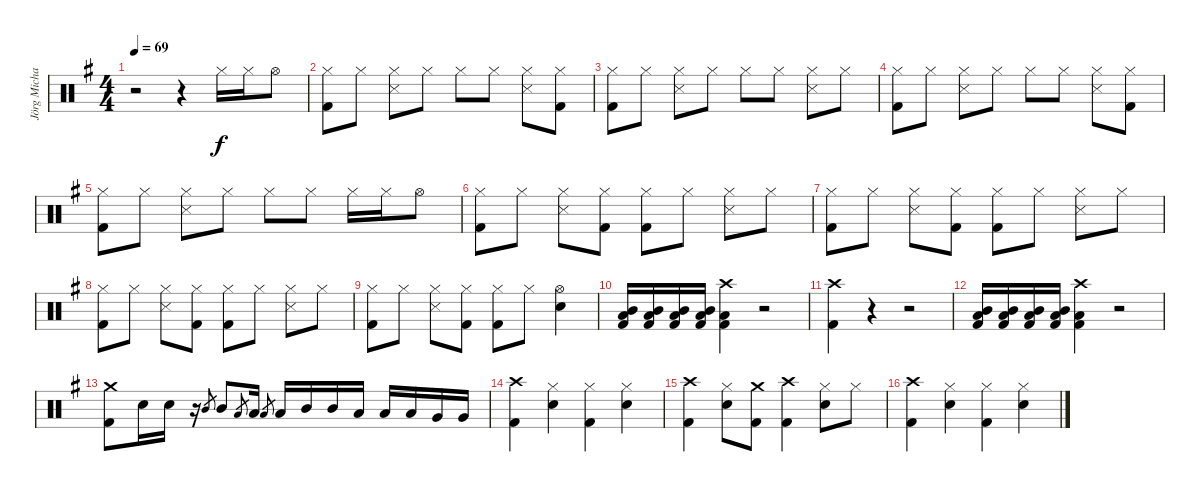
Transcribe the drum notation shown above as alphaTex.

\track ("Jörg Michael" "Jörg Micha") {instrument percussion}
\staff {score}
\articulation defaults
\ts (4 4)
\tempo 69
\clef neutral
\ks g
r.2{dy f} r.4 "Hi-Hat (closed)".16 "Hi-Hat (closed)".16 "Hi-Hat (open)".8 |
("Hi-Hat (closed)" "Kick (hit) 2").8 "Hi-Hat (closed)".8 ("Hi-Hat (closed)" "Snare (side stick) 3").8 "Hi-Hat (closed)".8 "Hi-Hat (closed)".8 "Hi-Hat (closed)".8 ("Hi-Hat (closed)" "Snare (side stick) 3").8 ("Hi-Hat (closed)" "Kick (hit) 2").8 |
("Hi-Hat (closed)" "Kick (hit) 2").8 "Hi-Hat (closed)".8 ("Hi-Hat (closed)" "Snare (side stick) 3").8 "Hi-Hat (closed)".8 "Hi-Hat (closed)".8 "Hi-Hat (closed)".8 ("Hi-Hat (closed)" "Snare (side stick) 3").8 "Hi-Hat (closed)".8 |
("Hi-Hat (closed)" "Kick (hit) 2").8 "Hi-Hat (closed)".8 ("Hi-Hat (closed)" "Snare (side stick) 3").8 "Hi-Hat (closed)".8 "Hi-Hat (closed)".8 "Hi-Hat (closed)".8 ("Hi-Hat (closed)" "Snare (side stick) 3").8 ("Hi-Hat (closed)" "Kick (hit) 2").8 |
("Hi-Hat (closed)" "Kick (hit) 2").8 "Hi-Hat (closed)".8 ("Hi-Hat (closed)" "Snare (side stick) 3").8 "Hi-Hat (closed)".8 "Hi-Hat (closed)".8 "Hi-Hat (closed)".8 "Hi-Hat (closed)".16 "Hi-Hat (closed)".16 "Hi-Hat (open)".8 |
("Hi-Hat (closed)" "Kick (hit) 2").8 "Hi-Hat (closed)".8 ("Hi-Hat (closed)" "Snare (side stick) 3").8 ("Hi-Hat (closed)" "Kick (hit) 2").8 ("Hi-Hat (closed)" "Kick (hit) 2").8 "Hi-Hat (closed)".8 ("Hi-Hat (closed)" "Snare (side stick) 3").8 "Hi-Hat (closed)".8 |
("Hi-Hat (closed)" "Kick (hit) 2").8 "Hi-Hat (closed)".8 ("Hi-Hat (closed)" "Snare (side stick) 3").8 ("Hi-Hat (closed)" "Kick (hit) 2").8 ("Hi-Hat (closed)" "Kick (hit) 2").8 "Hi-Hat (closed)".8 ("Hi-Hat (closed)" "Snare (side stick) 3").8 "Hi-Hat (closed)".8 |
("Hi-Hat (closed)" "Kick (hit) 2").8 "Hi-Hat (closed)".8 ("Hi-Hat (closed)" "Snare (side stick) 3").8 ("Hi-Hat (closed)" "Kick (hit) 2").8 ("Hi-Hat (closed)" "Kick (hit) 2").8 "Hi-Hat (closed)".8 ("Hi-Hat (closed)" "Snare (side stick) 3").8 "Hi-Hat (closed)".8 |
("Hi-Hat (closed)" "Kick (hit) 2").8 "Hi-Hat (closed)".8 ("Hi-Hat (closed)" "Snare (side stick) 3").8 ("Hi-Hat (closed)" "Kick (hit) 2").8 ("Hi-Hat (closed)" "Kick (hit) 2").8 "Hi-Hat (closed)".8 ("Hi-Hat (open)" "Electric Snare (hit)").4 |
("Mid Tom (hit)" "Low Tom (hit)" "Kick (hit) 2").16 ("Mid Tom (hit)" "Low Tom (hit)" "Kick (hit) 2").16 ("Mid Tom (hit)" "Low Tom (hit)" "Kick (hit) 2").16 ("Mid Tom (hit)" "Low Tom (hit)" "Kick (hit) 2").16 ("Low Tom (hit)" "Crash high (hit)" "Kick (hit) 2").4 r.2 |
("Crash high (hit)" "Kick (hit) 2").4 r.4 r.2 |
("Mid Tom (hit)" "Low Tom (hit)" "Kick (hit) 2").16 ("Mid Tom (hit)" "Low Tom (hit)" "Kick (hit) 2").16 ("Mid Tom (hit)" "Low Tom (hit)" "Kick (hit) 2").16 ("Mid Tom (hit)" "Low Tom (hit)" "Kick (hit) 2").16 ("Low Tom (hit)" "Crash high (hit)" "Kick (hit) 2").4 r.2 |
("Crash medium (hit)" "Kick (hit) 2").8 "Electric Snare (hit)".16 "Electric Snare (hit)".16 r.16 "Mid Tom (hit)".8{gr} "Mid Tom (hit)".8 "Low Tom (hit)".8{gr} "Low Tom (hit)".16 "Low Tom (hit)".8{gr} "Low Tom (hit)".16 "Mid Tom (hit)".16 "Mid Tom (hit)".16 "Low Tom (hit)".16 "Low Tom (hit)".16 "Low Tom (hit)".16 "Very Low Tom (hit)".16 "Very Low Tom (hit)".16 |
("Crash high (hit)" "Kick (hit) 2").4 ("Hi-Hat (closed)" "Electric Snare (hit)").4 ("Hi-Hat (closed)" "Kick (hit) 2").4 ("Hi-Hat (closed)" "Electric Snare (hit)").4 |
("Crash high (hit)" "Kick (hit) 2").4 ("Electric Snare (hit)" "Hi-Hat (closed)").8 ("Crash medium (hit)" "Kick (hit) 2").8 ("Crash high (hit)" "Kick (hit) 2").4 ("Electric Snare (hit)" "Hi-Hat (closed)").8 "Hi-Hat (closed)".8 |
("Crash high (hit)" "Kick (hit) 2").4 ("Hi-Hat (closed)" "Electric Snare (hit)").4 ("Hi-Hat (closed)" "Kick (hit) 2").4 ("Hi-Hat (closed)" "Electric Snare (hit)").4
